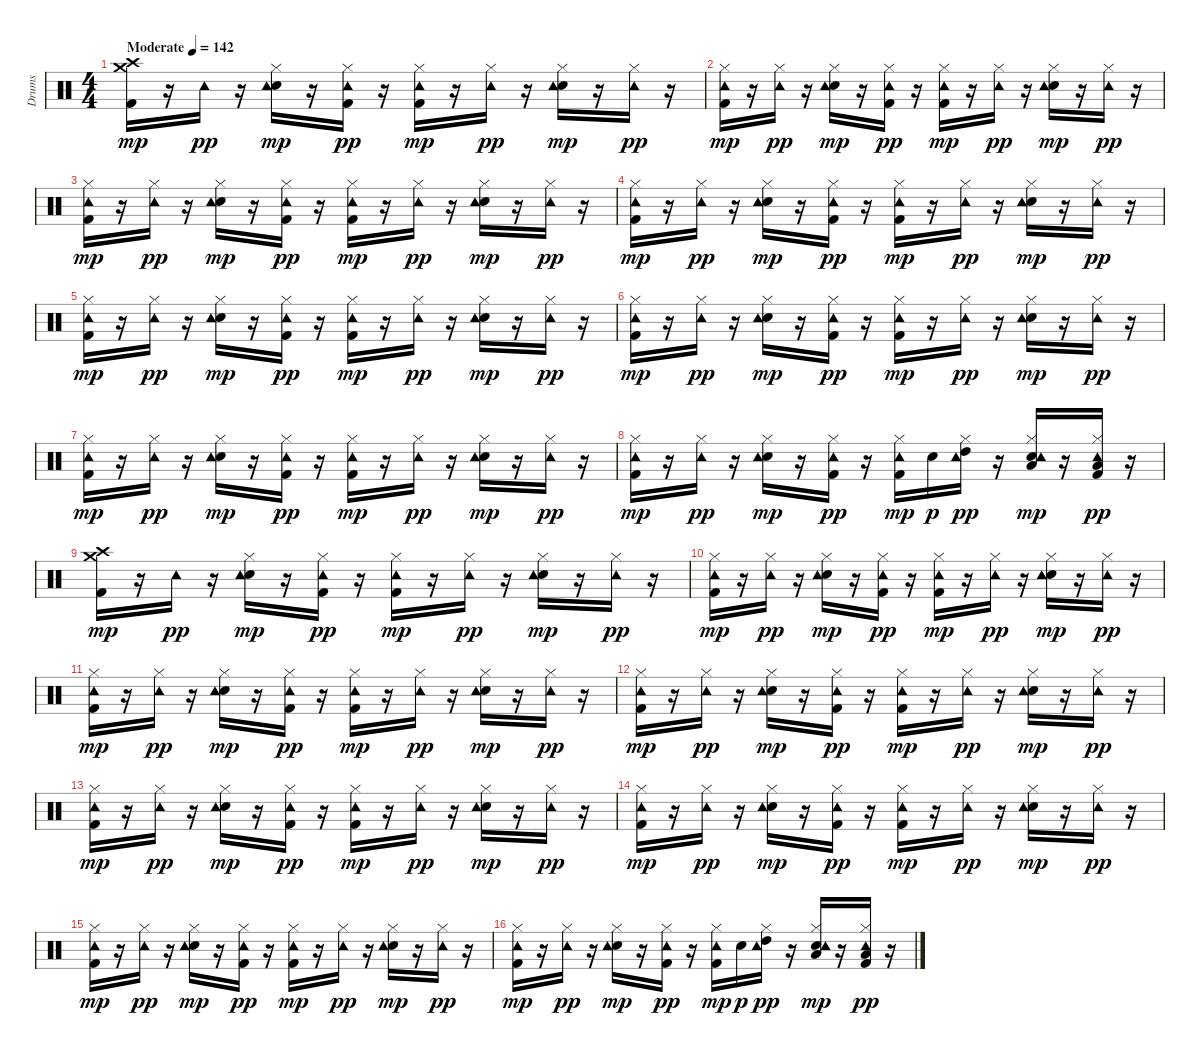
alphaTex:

\track ("Drums" "Drums") {instrument percussion}
\staff {score}
\articulation defaults
\ts (4 4)
\tempo (142 "Moderate")
\clef neutral
\ks c
("Kick (hit) 2" "Crash medium (hit)" "Crash high (hit)").16{dy mp} r.16 "Tambourine (hit)".16{dy pp} r.16 ("Snare (hit) 2" "Hi-Hat (closed)" "Tambourine (hit)").16{dy mp} r.16 ("Kick (hit) 2" "Hi-Hat (closed)" "Tambourine (hit)").16{dy pp} r.16 ("Kick (hit) 2" "Hi-Hat (closed)" "Tambourine (hit)").16{dy mp} r.16 ("Hi-Hat (closed)" "Tambourine (hit)").16{dy pp} r.16 ("Snare (hit) 2" "Hi-Hat (closed)" "Tambourine (hit)").16{dy mp} r.16 ("Hi-Hat (closed)" "Tambourine (hit)").16{dy pp} r.16 |
("Kick (hit) 2" "Hi-Hat (closed)" "Tambourine (hit)").16{dy mp} r.16 ("Hi-Hat (closed)" "Tambourine (hit)").16{dy pp} r.16 ("Snare (hit) 2" "Hi-Hat (closed)" "Tambourine (hit)").16{dy mp} r.16 ("Kick (hit) 2" "Hi-Hat (closed)" "Tambourine (hit)").16{dy pp} r.16 ("Kick (hit) 2" "Hi-Hat (closed)" "Tambourine (hit)").16{dy mp} r.16 ("Hi-Hat (closed)" "Tambourine (hit)").16{dy pp} r.16 ("Snare (hit) 2" "Hi-Hat (closed)" "Tambourine (hit)").16{dy mp} r.16 ("Hi-Hat (closed)" "Tambourine (hit)").16{dy pp} r.16 |
("Kick (hit) 2" "Hi-Hat (closed)" "Tambourine (hit)").16{dy mp} r.16 ("Hi-Hat (closed)" "Tambourine (hit)").16{dy pp} r.16 ("Snare (hit) 2" "Hi-Hat (closed)" "Tambourine (hit)").16{dy mp} r.16 ("Kick (hit) 2" "Hi-Hat (closed)" "Tambourine (hit)").16{dy pp} r.16 ("Kick (hit) 2" "Hi-Hat (closed)" "Tambourine (hit)").16{dy mp} r.16 ("Hi-Hat (closed)" "Tambourine (hit)").16{dy pp} r.16 ("Snare (hit) 2" "Hi-Hat (closed)" "Tambourine (hit)").16{dy mp} r.16 ("Hi-Hat (closed)" "Tambourine (hit)").16{dy pp} r.16 |
("Kick (hit) 2" "Hi-Hat (closed)" "Tambourine (hit)").16{dy mp} r.16 ("Hi-Hat (closed)" "Tambourine (hit)").16{dy pp} r.16 ("Snare (hit) 2" "Hi-Hat (closed)" "Tambourine (hit)").16{dy mp} r.16 ("Kick (hit) 2" "Hi-Hat (closed)" "Tambourine (hit)").16{dy pp} r.16 ("Kick (hit) 2" "Hi-Hat (closed)" "Tambourine (hit)").16{dy mp} r.16 ("Hi-Hat (closed)" "Tambourine (hit)").16{dy pp} r.16 ("Snare (hit) 2" "Hi-Hat (closed)" "Tambourine (hit)").16{dy mp} r.16 ("Hi-Hat (closed)" "Tambourine (hit)").16{dy pp} r.16 |
("Kick (hit) 2" "Hi-Hat (closed)" "Tambourine (hit)").16{dy mp} r.16 ("Hi-Hat (closed)" "Tambourine (hit)").16{dy pp} r.16 ("Snare (hit) 2" "Hi-Hat (closed)" "Tambourine (hit)").16{dy mp} r.16 ("Kick (hit) 2" "Hi-Hat (closed)" "Tambourine (hit)").16{dy pp} r.16 ("Kick (hit) 2" "Hi-Hat (closed)" "Tambourine (hit)").16{dy mp} r.16 ("Hi-Hat (closed)" "Tambourine (hit)").16{dy pp} r.16 ("Snare (hit) 2" "Hi-Hat (closed)" "Tambourine (hit)").16{dy mp} r.16 ("Hi-Hat (closed)" "Tambourine (hit)").16{dy pp} r.16 |
("Kick (hit) 2" "Hi-Hat (closed)" "Tambourine (hit)").16{dy mp} r.16 ("Hi-Hat (closed)" "Tambourine (hit)").16{dy pp} r.16 ("Snare (hit) 2" "Hi-Hat (closed)" "Tambourine (hit)").16{dy mp} r.16 ("Kick (hit) 2" "Hi-Hat (closed)" "Tambourine (hit)").16{dy pp} r.16 ("Kick (hit) 2" "Hi-Hat (closed)" "Tambourine (hit)").16{dy mp} r.16 ("Hi-Hat (closed)" "Tambourine (hit)").16{dy pp} r.16 ("Snare (hit) 2" "Hi-Hat (closed)" "Tambourine (hit)").16{dy mp} r.16 ("Hi-Hat (closed)" "Tambourine (hit)").16{dy pp} r.16 |
("Kick (hit) 2" "Hi-Hat (closed)" "Tambourine (hit)").16{dy mp} r.16 ("Hi-Hat (closed)" "Tambourine (hit)").16{dy pp} r.16 ("Snare (hit) 2" "Hi-Hat (closed)" "Tambourine (hit)").16{dy mp} r.16 ("Kick (hit) 2" "Hi-Hat (closed)" "Tambourine (hit)").16{dy pp} r.16 ("Kick (hit) 2" "Hi-Hat (closed)" "Tambourine (hit)").16{dy mp} r.16 ("Hi-Hat (closed)" "Tambourine (hit)").16{dy pp} r.16 ("Snare (hit) 2" "Hi-Hat (closed)" "Tambourine (hit)").16{dy mp} r.16 ("Hi-Hat (closed)" "Tambourine (hit)").16{dy pp} r.16 |
("Kick (hit) 2" "Hi-Hat (closed)" "Tambourine (hit)").16{dy mp} r.16 ("Hi-Hat (closed)" "Tambourine (hit)").16{dy pp} r.16 ("Snare (hit) 2" "Hi-Hat (closed)" "Tambourine (hit)").16{dy mp} r.16 ("Kick (hit) 2" "Hi-Hat (closed)" "Tambourine (hit)").16{dy pp} r.16 ("Kick (hit) 2" "Hi-Hat (closed)" "Tambourine (hit)").16{dy mp} "Snare (hit) 2".16{dy p} ("Hi-Hat (closed)" "High Tom (hit)" "Tambourine (hit)").16{dy pp} r.16 ("Snare (hit) 2" "Hi-Hat (closed)" "Low Tom (hit)" "Tambourine (hit)").16{dy mp} r.16 ("Kick (hit) 2" "Hi-Hat (closed)" "Low Floor Tom (hit)" "Tambourine (hit)").16{dy pp} r.16 |
("Kick (hit) 2" "Crash medium (hit)" "Crash high (hit)").16{dy mp} r.16 "Tambourine (hit)".16{dy pp} r.16 ("Snare (hit) 2" "Hi-Hat (closed)" "Tambourine (hit)").16{dy mp} r.16 ("Kick (hit) 2" "Hi-Hat (closed)" "Tambourine (hit)").16{dy pp} r.16 ("Kick (hit) 2" "Hi-Hat (closed)" "Tambourine (hit)").16{dy mp} r.16 ("Hi-Hat (closed)" "Tambourine (hit)").16{dy pp} r.16 ("Snare (hit) 2" "Hi-Hat (closed)" "Tambourine (hit)").16{dy mp} r.16 ("Hi-Hat (closed)" "Tambourine (hit)").16{dy pp} r.16 |
("Kick (hit) 2" "Hi-Hat (closed)" "Tambourine (hit)").16{dy mp} r.16 ("Hi-Hat (closed)" "Tambourine (hit)").16{dy pp} r.16 ("Snare (hit) 2" "Hi-Hat (closed)" "Tambourine (hit)").16{dy mp} r.16 ("Kick (hit) 2" "Hi-Hat (closed)" "Tambourine (hit)").16{dy pp} r.16 ("Kick (hit) 2" "Hi-Hat (closed)" "Tambourine (hit)").16{dy mp} r.16 ("Hi-Hat (closed)" "Tambourine (hit)").16{dy pp} r.16 ("Snare (hit) 2" "Hi-Hat (closed)" "Tambourine (hit)").16{dy mp} r.16 ("Hi-Hat (closed)" "Tambourine (hit)").16{dy pp} r.16 |
("Kick (hit) 2" "Hi-Hat (closed)" "Tambourine (hit)").16{dy mp} r.16 ("Hi-Hat (closed)" "Tambourine (hit)").16{dy pp} r.16 ("Snare (hit) 2" "Hi-Hat (closed)" "Tambourine (hit)").16{dy mp} r.16 ("Kick (hit) 2" "Hi-Hat (closed)" "Tambourine (hit)").16{dy pp} r.16 ("Kick (hit) 2" "Hi-Hat (closed)" "Tambourine (hit)").16{dy mp} r.16 ("Hi-Hat (closed)" "Tambourine (hit)").16{dy pp} r.16 ("Snare (hit) 2" "Hi-Hat (closed)" "Tambourine (hit)").16{dy mp} r.16 ("Hi-Hat (closed)" "Tambourine (hit)").16{dy pp} r.16 |
("Kick (hit) 2" "Hi-Hat (closed)" "Tambourine (hit)").16{dy mp} r.16 ("Hi-Hat (closed)" "Tambourine (hit)").16{dy pp} r.16 ("Snare (hit) 2" "Hi-Hat (closed)" "Tambourine (hit)").16{dy mp} r.16 ("Kick (hit) 2" "Hi-Hat (closed)" "Tambourine (hit)").16{dy pp} r.16 ("Kick (hit) 2" "Hi-Hat (closed)" "Tambourine (hit)").16{dy mp} r.16 ("Hi-Hat (closed)" "Tambourine (hit)").16{dy pp} r.16 ("Snare (hit) 2" "Hi-Hat (closed)" "Tambourine (hit)").16{dy mp} r.16 ("Hi-Hat (closed)" "Tambourine (hit)").16{dy pp} r.16 |
("Kick (hit) 2" "Hi-Hat (closed)" "Tambourine (hit)").16{dy mp} r.16 ("Hi-Hat (closed)" "Tambourine (hit)").16{dy pp} r.16 ("Snare (hit) 2" "Hi-Hat (closed)" "Tambourine (hit)").16{dy mp} r.16 ("Kick (hit) 2" "Hi-Hat (closed)" "Tambourine (hit)").16{dy pp} r.16 ("Kick (hit) 2" "Hi-Hat (closed)" "Tambourine (hit)").16{dy mp} r.16 ("Hi-Hat (closed)" "Tambourine (hit)").16{dy pp} r.16 ("Snare (hit) 2" "Hi-Hat (closed)" "Tambourine (hit)").16{dy mp} r.16 ("Hi-Hat (closed)" "Tambourine (hit)").16{dy pp} r.16 |
("Kick (hit) 2" "Hi-Hat (closed)" "Tambourine (hit)").16{dy mp} r.16 ("Hi-Hat (closed)" "Tambourine (hit)").16{dy pp} r.16 ("Snare (hit) 2" "Hi-Hat (closed)" "Tambourine (hit)").16{dy mp} r.16 ("Kick (hit) 2" "Hi-Hat (closed)" "Tambourine (hit)").16{dy pp} r.16 ("Kick (hit) 2" "Hi-Hat (closed)" "Tambourine (hit)").16{dy mp} r.16 ("Hi-Hat (closed)" "Tambourine (hit)").16{dy pp} r.16 ("Snare (hit) 2" "Hi-Hat (closed)" "Tambourine (hit)").16{dy mp} r.16 ("Hi-Hat (closed)" "Tambourine (hit)").16{dy pp} r.16 |
("Kick (hit) 2" "Hi-Hat (closed)" "Tambourine (hit)").16{dy mp} r.16 ("Hi-Hat (closed)" "Tambourine (hit)").16{dy pp} r.16 ("Snare (hit) 2" "Hi-Hat (closed)" "Tambourine (hit)").16{dy mp} r.16 ("Kick (hit) 2" "Hi-Hat (closed)" "Tambourine (hit)").16{dy pp} r.16 ("Kick (hit) 2" "Hi-Hat (closed)" "Tambourine (hit)").16{dy mp} r.16 ("Hi-Hat (closed)" "Tambourine (hit)").16{dy pp} r.16 ("Snare (hit) 2" "Hi-Hat (closed)" "Tambourine (hit)").16{dy mp} r.16 ("Hi-Hat (closed)" "Tambourine (hit)").16{dy pp} r.16 |
("Kick (hit) 2" "Hi-Hat (closed)" "Tambourine (hit)").16{dy mp} r.16 ("Hi-Hat (closed)" "Tambourine (hit)").16{dy pp} r.16 ("Snare (hit) 2" "Hi-Hat (closed)" "Tambourine (hit)").16{dy mp} r.16 ("Kick (hit) 2" "Hi-Hat (closed)" "Tambourine (hit)").16{dy pp} r.16 ("Kick (hit) 2" "Hi-Hat (closed)" "Tambourine (hit)").16{dy mp} "Snare (hit) 2".16{dy p} ("Hi-Hat (closed)" "High Tom (hit)" "Tambourine (hit)").16{dy pp} r.16 ("Snare (hit) 2" "Hi-Hat (closed)" "Low Tom (hit)" "Tambourine (hit)").16{dy mp} r.16 ("Kick (hit) 2" "Hi-Hat (closed)" "Low Floor Tom (hit)" "Tambourine (hit)").16{dy pp} r.16
